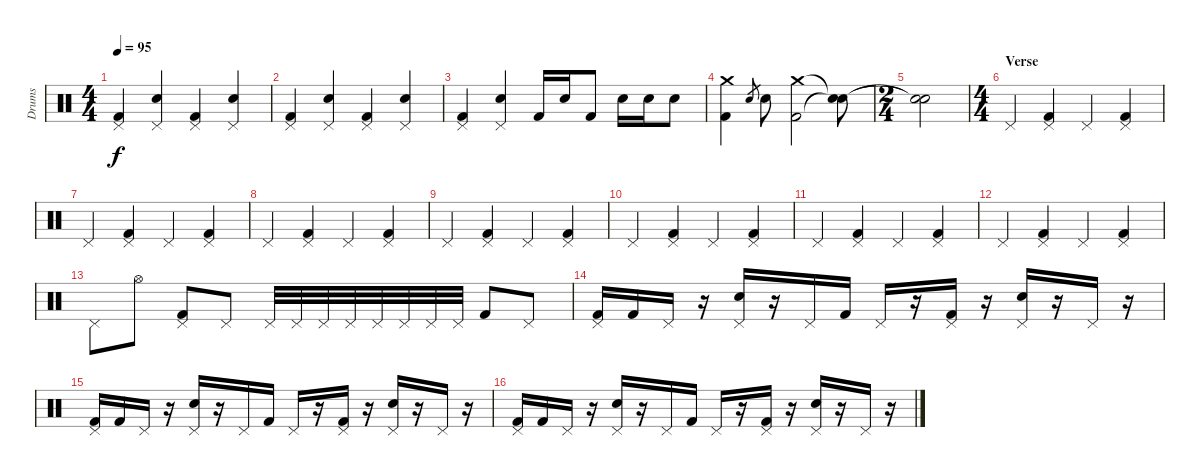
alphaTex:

\track ("Drums" "Drums") {instrument percussion}
\staff {score}
\articulation defaults
\ts (4 4)
\tempo 95
\clef neutral
\ks c
("Kick (hit) 2" "Pedal Hi-Hat (hit)").4{dy f} ("Electric Snare (hit)" "Pedal Hi-Hat (hit)").4 ("Kick (hit) 2" "Pedal Hi-Hat (hit)").4 ("Electric Snare (hit)" "Pedal Hi-Hat (hit)").4 |
("Kick (hit) 2" "Pedal Hi-Hat (hit)").4 ("Electric Snare (hit)" "Pedal Hi-Hat (hit)").4 ("Kick (hit) 2" "Pedal Hi-Hat (hit)").4 ("Electric Snare (hit)" "Pedal Hi-Hat (hit)").4 |
("Kick (hit) 2" "Pedal Hi-Hat (hit)").4 ("Electric Snare (hit)" "Pedal Hi-Hat (hit)").4 "Kick (hit) 2".16 "Electric Snare (hit)".16 "Kick (hit) 2".8 "Electric Snare (hit)".16 "Electric Snare (hit)".16 "Electric Snare (hit)".8 |
("Kick (hit) 2" "Crash medium (hit)").4 "Electric Snare (hit)".8{gr} "Electric Snare (hit)".8 ("Kick (hit) 2" "Crash medium (hit)").2 ("Snare (hit)"{t} "Snare (hit)"{t}).8 |
\ts (2 4)
("Snare (hit)"{t} "Snare (hit)"{t}).2 |
\ts (4 4)
\section ("" "Verse")
"Pedal Hi-Hat (hit)".4 ("Pedal Hi-Hat (hit)" "Kick (hit) 2").4 "Pedal Hi-Hat (hit)".4 ("Pedal Hi-Hat (hit)" "Kick (hit) 2").4 |
"Pedal Hi-Hat (hit)".4 ("Pedal Hi-Hat (hit)" "Kick (hit) 2").4 "Pedal Hi-Hat (hit)".4 ("Pedal Hi-Hat (hit)" "Kick (hit) 2").4 |
"Pedal Hi-Hat (hit)".4 ("Pedal Hi-Hat (hit)" "Kick (hit) 2").4 "Pedal Hi-Hat (hit)".4 ("Pedal Hi-Hat (hit)" "Kick (hit) 2").4 |
"Pedal Hi-Hat (hit)".4 ("Pedal Hi-Hat (hit)" "Kick (hit) 2").4 "Pedal Hi-Hat (hit)".4 ("Pedal Hi-Hat (hit)" "Kick (hit) 2").4 |
"Pedal Hi-Hat (hit)".4 ("Pedal Hi-Hat (hit)" "Kick (hit) 2").4 "Pedal Hi-Hat (hit)".4 ("Pedal Hi-Hat (hit)" "Kick (hit) 2").4 |
"Pedal Hi-Hat (hit)".4 ("Pedal Hi-Hat (hit)" "Kick (hit) 2").4 "Pedal Hi-Hat (hit)".4 ("Pedal Hi-Hat (hit)" "Kick (hit) 2").4 |
"Pedal Hi-Hat (hit)".4 ("Pedal Hi-Hat (hit)" "Kick (hit) 2").4 "Pedal Hi-Hat (hit)".4 ("Pedal Hi-Hat (hit)" "Kick (hit) 2").4 |
"Pedal Hi-Hat (hit)".8 "Hi-Hat (open)".8 ("Pedal Hi-Hat (hit)" "Kick (hit) 2").8 "Pedal Hi-Hat (hit)".8 "Pedal Hi-Hat (hit)".32 "Pedal Hi-Hat (hit)".32 "Pedal Hi-Hat (hit)".32 "Pedal Hi-Hat (hit)".32 "Pedal Hi-Hat (hit)".32 "Pedal Hi-Hat (hit)".32 "Pedal Hi-Hat (hit)".32 "Pedal Hi-Hat (hit)".32 "Kick (hit) 2".8 "Pedal Hi-Hat (hit)".8 |
("Pedal Hi-Hat (hit)" "Kick (hit) 2").16 "Kick (hit) 2".16 "Pedal Hi-Hat (hit)".16 r.16 ("Pedal Hi-Hat (hit)" "Electric Snare (hit)").16 r.16 "Pedal Hi-Hat (hit)".16 "Kick (hit) 2".16 "Pedal Hi-Hat (hit)".16 r.16 ("Pedal Hi-Hat (hit)" "Kick (hit) 2").16 r.16 ("Pedal Hi-Hat (hit)" "Electric Snare (hit)").16 r.16 "Pedal Hi-Hat (hit)".16 r.16 |
("Pedal Hi-Hat (hit)" "Kick (hit) 2").16 "Kick (hit) 2".16 "Pedal Hi-Hat (hit)".16 r.16 ("Pedal Hi-Hat (hit)" "Electric Snare (hit)").16 r.16 "Pedal Hi-Hat (hit)".16 "Kick (hit) 2".16 "Pedal Hi-Hat (hit)".16 r.16 ("Pedal Hi-Hat (hit)" "Kick (hit) 2").16 r.16 ("Pedal Hi-Hat (hit)" "Electric Snare (hit)").16 r.16 "Pedal Hi-Hat (hit)".16 r.16 |
("Pedal Hi-Hat (hit)" "Kick (hit) 2").16 "Kick (hit) 2".16 "Pedal Hi-Hat (hit)".16 r.16 ("Pedal Hi-Hat (hit)" "Electric Snare (hit)").16 r.16 "Pedal Hi-Hat (hit)".16 "Kick (hit) 2".16 "Pedal Hi-Hat (hit)".16 r.16 ("Pedal Hi-Hat (hit)" "Kick (hit) 2").16 r.16 ("Pedal Hi-Hat (hit)" "Electric Snare (hit)").16 r.16 "Pedal Hi-Hat (hit)".16 r.16
